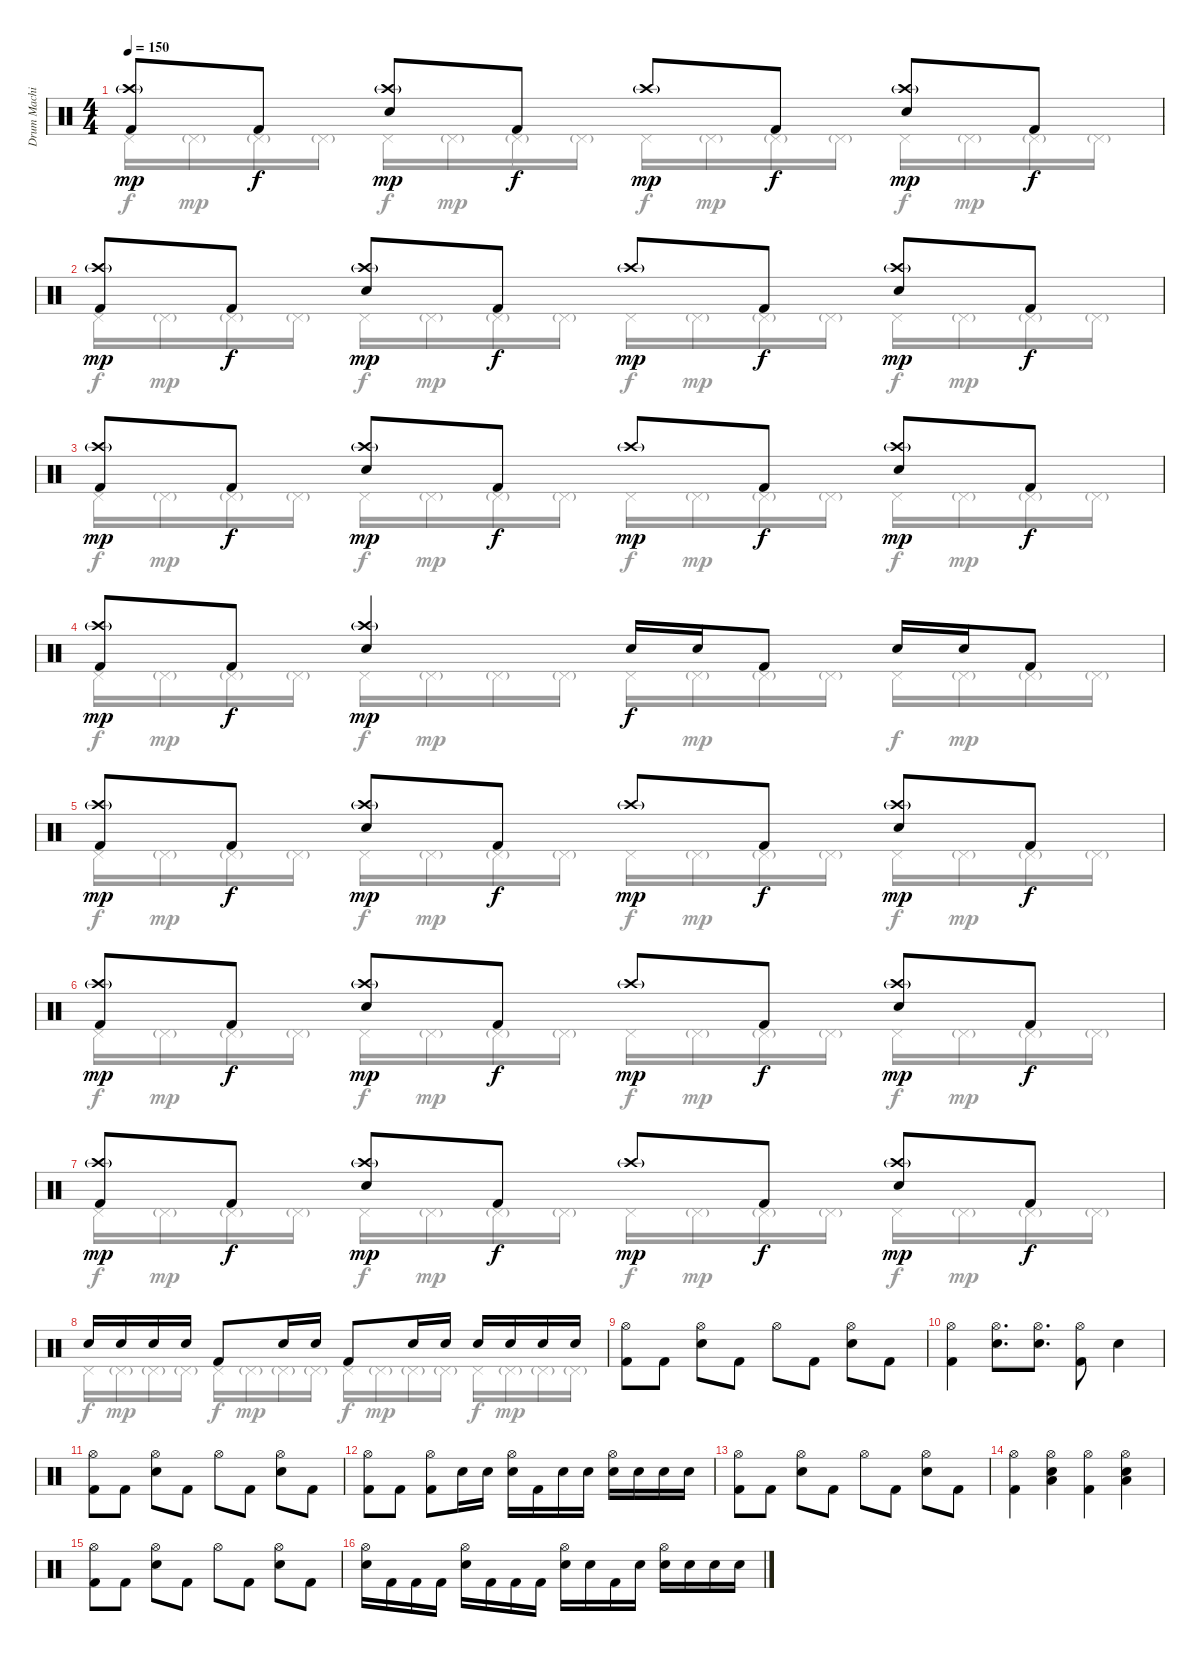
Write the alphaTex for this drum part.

\track ("Drum Machine" "Drum Machi") {instrument percussion}
\staff {score}
\articulation defaults
\voice
\ts (4 4)
\tempo 150
\clef neutral
\ks c
("Kick (hit) 2" "Crash high (hit)"{g}).8{dy mp} "Kick (hit) 2".8{dy f} ("Electric Snare (hit)" "Crash high (hit)"{g}).8{dy mp} "Kick (hit) 2".8{dy f} "Crash high (hit)"{g}.8{dy mp} "Kick (hit) 2".8{dy f} ("Electric Snare (hit)" "Crash high (hit)"{g}).8{dy mp} "Kick (hit) 2".8{dy f} |
("Kick (hit) 2" "Crash high (hit)"{g}).8{dy mp} "Kick (hit) 2".8{dy f} ("Electric Snare (hit)" "Crash high (hit)"{g}).8{dy mp} "Kick (hit) 2".8{dy f} "Crash high (hit)"{g}.8{dy mp} "Kick (hit) 2".8{dy f} ("Electric Snare (hit)" "Crash high (hit)"{g}).8{dy mp} "Kick (hit) 2".8{dy f} |
("Kick (hit) 2" "Crash high (hit)"{g}).8{dy mp} "Kick (hit) 2".8{dy f} ("Electric Snare (hit)" "Crash high (hit)"{g}).8{dy mp} "Kick (hit) 2".8{dy f} "Crash high (hit)"{g}.8{dy mp} "Kick (hit) 2".8{dy f} ("Electric Snare (hit)" "Crash high (hit)"{g}).8{dy mp} "Kick (hit) 2".8{dy f} |
("Kick (hit) 2" "Crash high (hit)"{g}).8{dy mp} "Kick (hit) 2".8{dy f} ("Electric Snare (hit)" "Crash high (hit)"{g}).4{dy mp} "Electric Snare (hit)".16{dy f} "Electric Snare (hit)".16 "Kick (hit) 2".8 "Electric Snare (hit)".16 "Electric Snare (hit)".16 "Kick (hit) 2".8 |
("Kick (hit) 2" "Crash high (hit)"{g}).8{dy mp} "Kick (hit) 2".8{dy f} ("Electric Snare (hit)" "Crash high (hit)"{g}).8{dy mp} "Kick (hit) 2".8{dy f} "Crash high (hit)"{g}.8{dy mp} "Kick (hit) 2".8{dy f} ("Electric Snare (hit)" "Crash high (hit)"{g}).8{dy mp} "Kick (hit) 2".8{dy f} |
("Kick (hit) 2" "Crash high (hit)"{g}).8{dy mp} "Kick (hit) 2".8{dy f} ("Electric Snare (hit)" "Crash high (hit)"{g}).8{dy mp} "Kick (hit) 2".8{dy f} "Crash high (hit)"{g}.8{dy mp} "Kick (hit) 2".8{dy f} ("Electric Snare (hit)" "Crash high (hit)"{g}).8{dy mp} "Kick (hit) 2".8{dy f} |
("Kick (hit) 2" "Crash high (hit)"{g}).8{dy mp} "Kick (hit) 2".8{dy f} ("Electric Snare (hit)" "Crash high (hit)"{g}).8{dy mp} "Kick (hit) 2".8{dy f} "Crash high (hit)"{g}.8{dy mp} "Kick (hit) 2".8{dy f} ("Electric Snare (hit)" "Crash high (hit)"{g}).8{dy mp} "Kick (hit) 2".8{dy f} |
"Electric Snare (hit)".16 "Electric Snare (hit)".16 "Electric Snare (hit)".16 "Electric Snare (hit)".16 "Kick (hit) 2".8 "Electric Snare (hit)".16 "Electric Snare (hit)".16 "Kick (hit) 2".8 "Electric Snare (hit)".16 "Electric Snare (hit)".16 "Electric Snare (hit)".16 "Electric Snare (hit)".16 "Electric Snare (hit)".16 "Electric Snare (hit)".16 |
("Kick (hit) 2" "Hi-Hat (open)").8 "Kick (hit) 2".8 ("Electric Snare (hit)" "Hi-Hat (open)").8 "Kick (hit) 2".8 "Hi-Hat (open)".8 "Kick (hit) 2".8 ("Electric Snare (hit)" "Hi-Hat (open)").8 "Kick (hit) 2".8 |
("Kick (hit) 2" "Hi-Hat (open)").4 ("Electric Snare (hit)" "Hi-Hat (open)").8{d} ("Electric Snare (hit)" "Hi-Hat (open)").8{d} ("Kick (hit) 2" "Hi-Hat (open)").8 "Electric Snare (hit)".4 |
("Kick (hit) 2" "Hi-Hat (open)").8 "Kick (hit) 2".8 ("Electric Snare (hit)" "Hi-Hat (open)").8 "Kick (hit) 2".8 "Hi-Hat (open)".8 "Kick (hit) 2".8 ("Electric Snare (hit)" "Hi-Hat (open)").8 "Kick (hit) 2".8 |
("Kick (hit) 2" "Hi-Hat (open)").8 "Kick (hit) 2".8 ("Kick (hit) 2" "Hi-Hat (open)").8 "Electric Snare (hit)".16 "Electric Snare (hit)".16 ("Electric Snare (hit)" "Hi-Hat (open)").16 "Kick (hit) 2".16 "Electric Snare (hit)".16 "Electric Snare (hit)".16 ("Electric Snare (hit)" "Hi-Hat (open)").16 "Electric Snare (hit)".16 "Electric Snare (hit)".16 "Electric Snare (hit)".16 |
("Kick (hit) 2" "Hi-Hat (open)").8 "Kick (hit) 2".8 ("Electric Snare (hit)" "Hi-Hat (open)").8 "Kick (hit) 2".8 "Hi-Hat (open)".8 "Kick (hit) 2".8 ("Electric Snare (hit)" "Hi-Hat (open)").8 "Kick (hit) 2".8 |
("Kick (hit) 2" "Hi-Hat (open)").4 ("Electric Snare (hit)" "Low Floor Tom (hit)" "Hi-Hat (open)").4 ("Kick (hit) 2" "Hi-Hat (open)").4 ("Electric Snare (hit)" "Low Floor Tom (hit)" "Hi-Hat (open)").4 |
("Kick (hit) 2" "Hi-Hat (open)").8 "Kick (hit) 2".8 ("Electric Snare (hit)" "Hi-Hat (open)").8 "Kick (hit) 2".8 "Hi-Hat (open)".8 "Kick (hit) 2".8 ("Electric Snare (hit)" "Hi-Hat (open)").8 "Kick (hit) 2".8 |
("Electric Snare (hit)" "Hi-Hat (open)").16 "Kick (hit) 2".16 "Kick (hit) 2".16 "Kick (hit) 2".16 ("Electric Snare (hit)" "Hi-Hat (open)").16 "Kick (hit) 2".16 "Kick (hit) 2".16 "Kick (hit) 2".16 ("Electric Snare (hit)" "Hi-Hat (open)").16 "Electric Snare (hit)".16 "Kick (hit) 2".16 "Electric Snare (hit)".16 ("Electric Snare (hit)" "Hi-Hat (open)").16 "Electric Snare (hit)".16 "Electric Snare (hit)".16 "Electric Snare (hit)".16
\voice
\clef neutral
\ottava regular
\simile none
\ks c "Pedal Hi-Hat (hit)".16{dy f} "Pedal Hi-Hat (hit)"{g}.16{dy mp} "Pedal Hi-Hat (hit)"{g}.16 "Pedal Hi-Hat (hit)"{g}.16 "Pedal Hi-Hat (hit)".16{dy f} "Pedal Hi-Hat (hit)"{g}.16{dy mp} "Pedal Hi-Hat (hit)"{g}.16 "Pedal Hi-Hat (hit)"{g}.16 "Pedal Hi-Hat (hit)".16{dy f} "Pedal Hi-Hat (hit)"{g}.16{dy mp} "Pedal Hi-Hat (hit)"{g}.16 "Pedal Hi-Hat (hit)"{g}.16 "Pedal Hi-Hat (hit)".16{dy f} "Pedal Hi-Hat (hit)"{g}.16{dy mp} "Pedal Hi-Hat (hit)"{g}.16 "Pedal Hi-Hat (hit)"{g}.16
|
"Pedal Hi-Hat (hit)".16{dy f} "Pedal Hi-Hat (hit)"{g}.16{dy mp} "Pedal Hi-Hat (hit)"{g}.16 "Pedal Hi-Hat (hit)"{g}.16 "Pedal Hi-Hat (hit)".16{dy f} "Pedal Hi-Hat (hit)"{g}.16{dy mp} "Pedal Hi-Hat (hit)"{g}.16 "Pedal Hi-Hat (hit)"{g}.16 "Pedal Hi-Hat (hit)".16{dy f} "Pedal Hi-Hat (hit)"{g}.16{dy mp} "Pedal Hi-Hat (hit)"{g}.16 "Pedal Hi-Hat (hit)"{g}.16 "Pedal Hi-Hat (hit)".16{dy f} "Pedal Hi-Hat (hit)"{g}.16{dy mp} "Pedal Hi-Hat (hit)"{g}.16 "Pedal Hi-Hat (hit)"{g}.16 |
"Pedal Hi-Hat (hit)".16{dy f} "Pedal Hi-Hat (hit)"{g}.16{dy mp} "Pedal Hi-Hat (hit)"{g}.16 "Pedal Hi-Hat (hit)"{g}.16 "Pedal Hi-Hat (hit)".16{dy f} "Pedal Hi-Hat (hit)"{g}.16{dy mp} "Pedal Hi-Hat (hit)"{g}.16 "Pedal Hi-Hat (hit)"{g}.16 "Pedal Hi-Hat (hit)".16{dy f} "Pedal Hi-Hat (hit)"{g}.16{dy mp} "Pedal Hi-Hat (hit)"{g}.16 "Pedal Hi-Hat (hit)"{g}.16 "Pedal Hi-Hat (hit)".16{dy f} "Pedal Hi-Hat (hit)"{g}.16{dy mp} "Pedal Hi-Hat (hit)"{g}.16 "Pedal Hi-Hat (hit)"{g}.16 |
"Pedal Hi-Hat (hit)".16{dy f} "Pedal Hi-Hat (hit)"{g}.16{dy mp} "Pedal Hi-Hat (hit)"{g}.16 "Pedal Hi-Hat (hit)"{g}.16 "Pedal Hi-Hat (hit)".16{dy f} "Pedal Hi-Hat (hit)"{g}.16{dy mp} "Pedal Hi-Hat (hit)"{g}.16 "Pedal Hi-Hat (hit)"{g}.16 "Pedal Hi-Hat (hit)".16{dy f} "Pedal Hi-Hat (hit)"{g}.16{dy mp} "Pedal Hi-Hat (hit)"{g}.16 "Pedal Hi-Hat (hit)"{g}.16 "Pedal Hi-Hat (hit)".16{dy f} "Pedal Hi-Hat (hit)"{g}.16{dy mp} "Pedal Hi-Hat (hit)"{g}.16 "Pedal Hi-Hat (hit)"{g}.16 |
"Pedal Hi-Hat (hit)".16{dy f} "Pedal Hi-Hat (hit)"{g}.16{dy mp} "Pedal Hi-Hat (hit)"{g}.16 "Pedal Hi-Hat (hit)"{g}.16 "Pedal Hi-Hat (hit)".16{dy f} "Pedal Hi-Hat (hit)"{g}.16{dy mp} "Pedal Hi-Hat (hit)"{g}.16 "Pedal Hi-Hat (hit)"{g}.16 "Pedal Hi-Hat (hit)".16{dy f} "Pedal Hi-Hat (hit)"{g}.16{dy mp} "Pedal Hi-Hat (hit)"{g}.16 "Pedal Hi-Hat (hit)"{g}.16 "Pedal Hi-Hat (hit)".16{dy f} "Pedal Hi-Hat (hit)"{g}.16{dy mp} "Pedal Hi-Hat (hit)"{g}.16 "Pedal Hi-Hat (hit)"{g}.16 |
"Pedal Hi-Hat (hit)".16{dy f} "Pedal Hi-Hat (hit)"{g}.16{dy mp} "Pedal Hi-Hat (hit)"{g}.16 "Pedal Hi-Hat (hit)"{g}.16 "Pedal Hi-Hat (hit)".16{dy f} "Pedal Hi-Hat (hit)"{g}.16{dy mp} "Pedal Hi-Hat (hit)"{g}.16 "Pedal Hi-Hat (hit)"{g}.16 "Pedal Hi-Hat (hit)".16{dy f} "Pedal Hi-Hat (hit)"{g}.16{dy mp} "Pedal Hi-Hat (hit)"{g}.16 "Pedal Hi-Hat (hit)"{g}.16 "Pedal Hi-Hat (hit)".16{dy f} "Pedal Hi-Hat (hit)"{g}.16{dy mp} "Pedal Hi-Hat (hit)"{g}.16 "Pedal Hi-Hat (hit)"{g}.16 |
"Pedal Hi-Hat (hit)".16{dy f} "Pedal Hi-Hat (hit)"{g}.16{dy mp} "Pedal Hi-Hat (hit)"{g}.16 "Pedal Hi-Hat (hit)"{g}.16 "Pedal Hi-Hat (hit)".16{dy f} "Pedal Hi-Hat (hit)"{g}.16{dy mp} "Pedal Hi-Hat (hit)"{g}.16 "Pedal Hi-Hat (hit)"{g}.16 "Pedal Hi-Hat (hit)".16{dy f} "Pedal Hi-Hat (hit)"{g}.16{dy mp} "Pedal Hi-Hat (hit)"{g}.16 "Pedal Hi-Hat (hit)"{g}.16 "Pedal Hi-Hat (hit)".16{dy f} "Pedal Hi-Hat (hit)"{g}.16{dy mp} "Pedal Hi-Hat (hit)"{g}.16 "Pedal Hi-Hat (hit)"{g}.16 |
"Pedal Hi-Hat (hit)".16{dy f} "Pedal Hi-Hat (hit)"{g}.16{dy mp} "Pedal Hi-Hat (hit)"{g}.16 "Pedal Hi-Hat (hit)"{g}.16 "Pedal Hi-Hat (hit)".16{dy f} "Pedal Hi-Hat (hit)"{g}.16{dy mp} "Pedal Hi-Hat (hit)"{g}.16 "Pedal Hi-Hat (hit)"{g}.16 "Pedal Hi-Hat (hit)".16{dy f} "Pedal Hi-Hat (hit)"{g}.16{dy mp} "Pedal Hi-Hat (hit)"{g}.16 "Pedal Hi-Hat (hit)"{g}.16 "Pedal Hi-Hat (hit)".16{dy f} "Pedal Hi-Hat (hit)"{g}.16{dy mp} "Pedal Hi-Hat (hit)"{g}.16 "Pedal Hi-Hat (hit)"{g}.16 |
|
|
|
|
|
|
|
